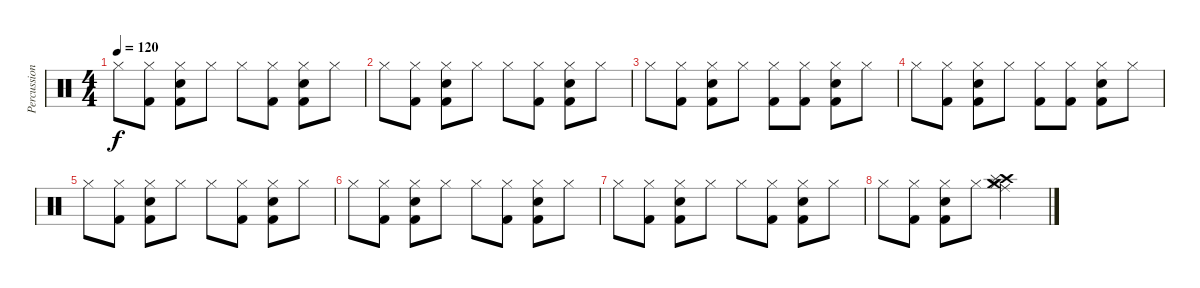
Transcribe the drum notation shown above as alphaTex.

\track ("Percussion" "Percussion") {instrument percussion}
\staff {score}
\articulation defaults
\ts (4 4)
\tempo 120
\clef neutral
\ks c "Hi-Hat (closed)".8{dy f}
("Hi-Hat (closed)" "Kick (hit) 2").8 ("Hi-Hat (closed)" "Kick (hit) 2" "Electric Snare (hit)").8 "Hi-Hat (closed)".8 "Hi-Hat (closed)".8 ("Hi-Hat (closed)" "Kick (hit) 2").8 ("Hi-Hat (closed)" "Kick (hit) 2" "Electric Snare (hit)").8 "Hi-Hat (closed)".8 |
"Hi-Hat (closed)".8 ("Hi-Hat (closed)" "Kick (hit) 2").8 ("Hi-Hat (closed)" "Kick (hit) 2" "Electric Snare (hit)").8 "Hi-Hat (closed)".8 "Hi-Hat (closed)".8 ("Hi-Hat (closed)" "Kick (hit) 2").8 ("Hi-Hat (closed)" "Kick (hit) 2" "Electric Snare (hit)").8 "Hi-Hat (closed)".8 |
"Hi-Hat (closed)".8 ("Hi-Hat (closed)" "Kick (hit) 2").8 ("Hi-Hat (closed)" "Kick (hit) 2" "Electric Snare (hit)").8 "Hi-Hat (closed)".8 ("Hi-Hat (closed)" "Kick (hit) 2").8 ("Hi-Hat (closed)" "Kick (hit) 2").8 ("Hi-Hat (closed)" "Kick (hit) 2" "Electric Snare (hit)").8 "Hi-Hat (closed)".8 |
"Hi-Hat (closed)".8 ("Hi-Hat (closed)" "Kick (hit) 2").8 ("Hi-Hat (closed)" "Kick (hit) 2" "Electric Snare (hit)").8 "Hi-Hat (closed)".8 ("Hi-Hat (closed)" "Kick (hit) 2").8 ("Hi-Hat (closed)" "Kick (hit) 2").8 ("Hi-Hat (closed)" "Kick (hit) 2" "Electric Snare (hit)").8 "Hi-Hat (closed)".8 |
"Hi-Hat (closed)".8 ("Hi-Hat (closed)" "Kick (hit) 2").8 ("Hi-Hat (closed)" "Kick (hit) 2" "Electric Snare (hit)").8 "Hi-Hat (closed)".8 "Hi-Hat (closed)".8 ("Hi-Hat (closed)" "Kick (hit) 2").8 ("Hi-Hat (closed)" "Kick (hit) 2" "Electric Snare (hit)").8 "Hi-Hat (closed)".8 |
"Hi-Hat (closed)".8 ("Hi-Hat (closed)" "Kick (hit) 2").8 ("Hi-Hat (closed)" "Kick (hit) 2" "Electric Snare (hit)").8 "Hi-Hat (closed)".8 "Hi-Hat (closed)".8 ("Hi-Hat (closed)" "Kick (hit) 2").8 ("Hi-Hat (closed)" "Kick (hit) 2" "Electric Snare (hit)").8 "Hi-Hat (closed)".8 |
"Hi-Hat (closed)".8 ("Hi-Hat (closed)" "Kick (hit) 2").8 ("Hi-Hat (closed)" "Kick (hit) 2" "Electric Snare (hit)").8 "Hi-Hat (closed)".8 "Hi-Hat (closed)".8 ("Hi-Hat (closed)" "Kick (hit) 2").8 ("Hi-Hat (closed)" "Kick (hit) 2" "Electric Snare (hit)").8 "Hi-Hat (closed)".8 |
"Hi-Hat (closed)".8 ("Hi-Hat (closed)" "Kick (hit) 2").8 ("Hi-Hat (closed)" "Kick (hit) 2" "Electric Snare (hit)").8 "Hi-Hat (closed)".8 ("Hi-Hat (closed)" "Crash high (hit)" "Ride (middle)" "Splash (hit)" "Crash medium (hit)").2
